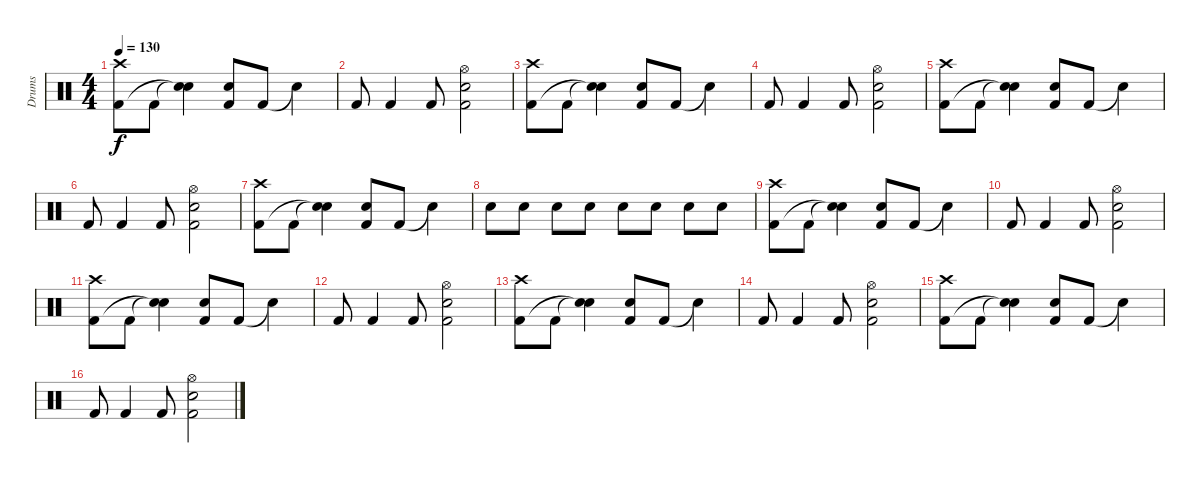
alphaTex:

\track ("Drums" "Drums") {instrument percussion}
\staff {score}
\articulation defaults
\ts (4 4)
\tempo 130
\clef neutral
\ks c
("Crash high (hit)" "Kick (hit) 2").8{dy f} "Kick (hit) 2".8 ("Snare (hit)"{t} "Snare (hit)"{t}).4 ("Electric Snare (hit)" "Kick (hit) 2").8 "Kick (hit) 2".8 "Snare (hit)"{t}.4 |
"Kick (hit) 2".8 "Kick (hit) 2".4 "Kick (hit) 2".8 ("Hi-Hat (open)" "Electric Snare (hit)" "Kick (hit) 2").2 |
("Crash high (hit)" "Kick (hit) 2").8 "Kick (hit) 2".8 ("Snare (hit)"{t} "Snare (hit)"{t}).4 ("Electric Snare (hit)" "Kick (hit) 2").8 "Kick (hit) 2".8 "Snare (hit)"{t}.4 |
"Kick (hit) 2".8 "Kick (hit) 2".4 "Kick (hit) 2".8 ("Hi-Hat (open)" "Electric Snare (hit)" "Kick (hit) 2").2 |
("Crash high (hit)" "Kick (hit) 2").8 "Kick (hit) 2".8 ("Snare (hit)"{t} "Snare (hit)"{t}).4 ("Electric Snare (hit)" "Kick (hit) 2").8 "Kick (hit) 2".8 "Snare (hit)"{t}.4 |
"Kick (hit) 2".8 "Kick (hit) 2".4 "Kick (hit) 2".8 ("Hi-Hat (open)" "Electric Snare (hit)" "Kick (hit) 2").2 |
("Crash high (hit)" "Kick (hit) 2").8 "Kick (hit) 2".8 ("Snare (hit)"{t} "Snare (hit)"{t}).4 ("Electric Snare (hit)" "Kick (hit) 2").8 "Kick (hit) 2".8 "Snare (hit)"{t}.4 |
"Snare (hit) 2".8{volume 10} "Snare (hit) 2".8{volume 16} "Snare (hit) 2".8 "Snare (hit) 2".8 "Snare (hit) 2".8 "Snare (hit) 2".8 "Snare (hit) 2".8 "Snare (hit) 2".8 |
("Crash high (hit)" "Kick (hit) 2").8 "Kick (hit) 2".8 ("Snare (hit)"{t} "Snare (hit)"{t}).4 ("Electric Snare (hit)" "Kick (hit) 2").8 "Kick (hit) 2".8 "Snare (hit)"{t}.4 |
"Kick (hit) 2".8 "Kick (hit) 2".4 "Kick (hit) 2".8 ("Hi-Hat (open)" "Electric Snare (hit)" "Kick (hit) 2").2 |
("Crash high (hit)" "Kick (hit) 2").8 "Kick (hit) 2".8 ("Snare (hit)"{t} "Snare (hit)"{t}).4 ("Electric Snare (hit)" "Kick (hit) 2").8 "Kick (hit) 2".8 "Snare (hit)"{t}.4 |
"Kick (hit) 2".8 "Kick (hit) 2".4 "Kick (hit) 2".8 ("Hi-Hat (open)" "Electric Snare (hit)" "Kick (hit) 2").2 |
("Crash high (hit)" "Kick (hit) 2").8 "Kick (hit) 2".8 ("Snare (hit)"{t} "Snare (hit)"{t}).4 ("Electric Snare (hit)" "Kick (hit) 2").8 "Kick (hit) 2".8 "Snare (hit)"{t}.4 |
"Kick (hit) 2".8 "Kick (hit) 2".4 "Kick (hit) 2".8 ("Hi-Hat (open)" "Electric Snare (hit)" "Kick (hit) 2").2 |
("Crash high (hit)" "Kick (hit) 2").8 "Kick (hit) 2".8 ("Snare (hit)"{t} "Snare (hit)"{t}).4 ("Electric Snare (hit)" "Kick (hit) 2").8 "Kick (hit) 2".8 "Snare (hit)"{t}.4 |
"Kick (hit) 2".8 "Kick (hit) 2".4 "Kick (hit) 2".8 ("Hi-Hat (open)" "Electric Snare (hit)" "Kick (hit) 2").2
